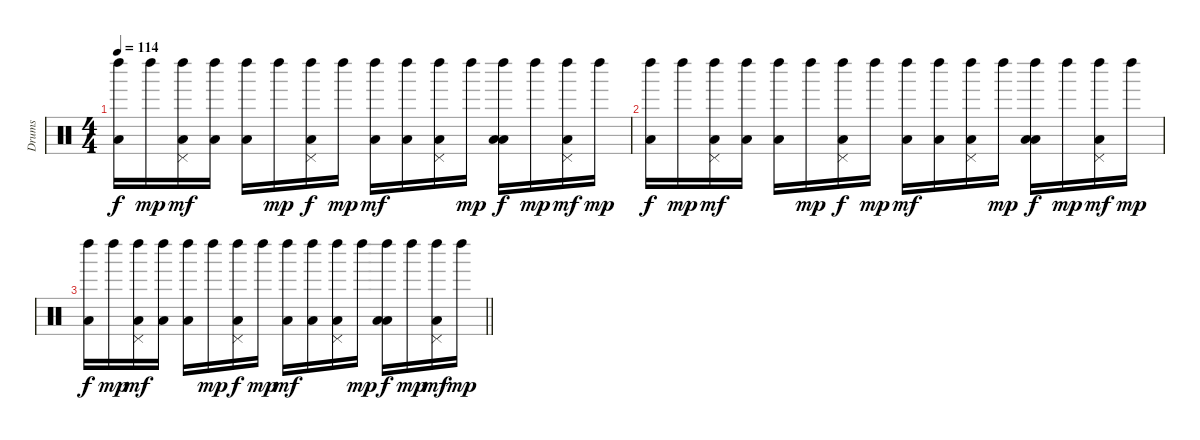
\track ("Drums" "Drums") {instrument percussion}
\staff {score}
\articulation defaults
\ts (4 4)
\tempo 114
\clef neutral
\ks c
("Left Maraca (hit)" "Low Floor Tom (hit)").16{dy f} "Left Maraca (hit)".16{dy mp} ("Pedal Hi-Hat (hit)" "Left Maraca (hit)" "Low Floor Tom (hit)").16{dy mf} ("Left Maraca (hit)" "Low Tom (hit)").16 ("Left Maraca (hit)" "Low Floor Tom (hit)").16 "Left Maraca (hit)".16{dy mp} ("Pedal Hi-Hat (hit)" "Left Maraca (hit)" "Low Floor Tom (hit)").16{dy f} "Left Maraca (hit)".16{dy mp} ("Left Maraca (hit)" "Low Floor Tom (hit)").16{dy mf} ("Left Maraca (hit)" "Low Tom (hit)").16 ("Pedal Hi-Hat (hit)" "Left Maraca (hit)" "Low Floor Tom (hit)").16 "Left Maraca (hit)".16{dy mp} ("Left Maraca (hit)" "Low Tom (hit)" "Low Floor Tom (hit)").16{dy f} "Left Maraca (hit)".16{dy mp} ("Pedal Hi-Hat (hit)" "Left Maraca (hit)" "Low Floor Tom (hit)").16{dy mf} "Left Maraca (hit)".16{dy mp} |
("Left Maraca (hit)" "Low Floor Tom (hit)").16{dy f} "Left Maraca (hit)".16{dy mp} ("Pedal Hi-Hat (hit)" "Left Maraca (hit)" "Low Floor Tom (hit)").16{dy mf} ("Left Maraca (hit)" "Low Tom (hit)").16 ("Left Maraca (hit)" "Low Floor Tom (hit)").16 "Left Maraca (hit)".16{dy mp} ("Pedal Hi-Hat (hit)" "Left Maraca (hit)" "Low Floor Tom (hit)").16{dy f} "Left Maraca (hit)".16{dy mp} ("Left Maraca (hit)" "Low Floor Tom (hit)").16{dy mf} ("Left Maraca (hit)" "Low Tom (hit)").16 ("Pedal Hi-Hat (hit)" "Left Maraca (hit)" "Low Floor Tom (hit)").16 "Left Maraca (hit)".16{dy mp} ("Left Maraca (hit)" "Low Tom (hit)" "Low Floor Tom (hit)").16{dy f} "Left Maraca (hit)".16{dy mp} ("Pedal Hi-Hat (hit)" "Left Maraca (hit)" "Low Floor Tom (hit)").16{dy mf} "Left Maraca (hit)".16{dy mp} |
\barLineRight lightlight
("Left Maraca (hit)" "Low Floor Tom (hit)").16{dy f} "Left Maraca (hit)".16{dy mp} ("Pedal Hi-Hat (hit)" "Left Maraca (hit)" "Low Floor Tom (hit)").16{dy mf} ("Left Maraca (hit)" "Low Tom (hit)").16 ("Left Maraca (hit)" "Low Floor Tom (hit)").16 "Left Maraca (hit)".16{dy mp} ("Pedal Hi-Hat (hit)" "Left Maraca (hit)" "Low Floor Tom (hit)").16{dy f} "Left Maraca (hit)".16{dy mp} ("Left Maraca (hit)" "Low Floor Tom (hit)").16{dy mf} ("Left Maraca (hit)" "Low Tom (hit)").16 ("Pedal Hi-Hat (hit)" "Left Maraca (hit)" "Low Floor Tom (hit)").16 "Left Maraca (hit)".16{dy mp} ("Left Maraca (hit)" "Low Tom (hit)" "Low Floor Tom (hit)").16{dy f} "Left Maraca (hit)".16{dy mp} ("Pedal Hi-Hat (hit)" "Left Maraca (hit)" "Low Floor Tom (hit)").16{dy mf} "Left Maraca (hit)".16{dy mp}
